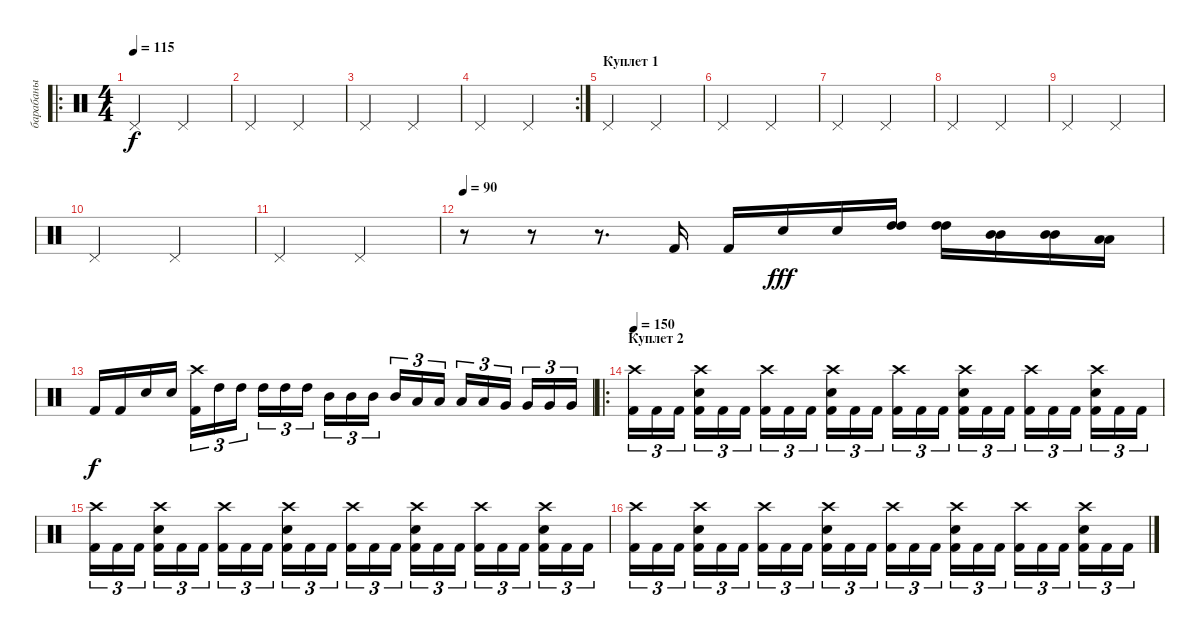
\track ("барабаны" "барабаны") {instrument percussion}
\staff {score}
\articulation defaults
\ro
\ts (4 4)
\tempo 115
\clef neutral
\ks c "Pedal Hi-Hat (hit)".2{dy f} "Pedal Hi-Hat (hit)".2
|
"Pedal Hi-Hat (hit)".2 "Pedal Hi-Hat (hit)".2 |
"Pedal Hi-Hat (hit)".2 "Pedal Hi-Hat (hit)".2 |
\rc 2 "Pedal Hi-Hat (hit)".2 "Pedal Hi-Hat (hit)".2
|
\section ("" "Куплет 1")
"Pedal Hi-Hat (hit)".2 "Pedal Hi-Hat (hit)".2 |
"Pedal Hi-Hat (hit)".2 "Pedal Hi-Hat (hit)".2 |
"Pedal Hi-Hat (hit)".2 "Pedal Hi-Hat (hit)".2 |
"Pedal Hi-Hat (hit)".2 "Pedal Hi-Hat (hit)".2 |
"Pedal Hi-Hat (hit)".2 "Pedal Hi-Hat (hit)".2 |
"Pedal Hi-Hat (hit)".2 "Pedal Hi-Hat (hit)".2 |
"Pedal Hi-Hat (hit)".2 "Pedal Hi-Hat (hit)".2 |
\tempo 90
r.8 r.8 r.8{d} "Kick (hit) 2".16 "Kick (hit) 2".16 "Electric Snare (hit)".16{dy fff} "Electric Snare (hit)".16 ("High Tom (hit)" "High Tom (hit)").16 ("High Tom (hit)" "High Tom (hit)").16 ("Mid Tom (hit)" "Mid Tom (hit)").16 ("Mid Tom (hit)" "Mid Tom (hit)").16 ("Low Tom (hit)" "Low Tom (hit)").16 |
"Kick (hit) 2".16{dy f} "Kick (hit) 2".16 "Electric Snare (hit)".16 "Electric Snare (hit)".16 ("Crash high (hit)" "Kick (hit) 2").16{tu (3 2)} "High Tom (hit)".16{tu (3 2) balance 13} "High Tom (hit)".16{tu (3 2)} "High Tom (hit)".16{tu (3 2)} "High Tom (hit)".16{tu (3 2)} "High Tom (hit)".16{tu (3 2)} "Mid Tom (hit)".16{tu (3 2) balance 10} "Mid Tom (hit)".16{tu (3 2)} "Mid Tom (hit)".16{tu (3 2)} "Mid Tom (hit)".16{tu (3 2)} "Low Tom (hit)".16{tu (3 2) balance 6} "Low Tom (hit)".16{tu (3 2)} "Low Tom (hit)".16{tu (3 2)} "Low Tom (hit)".16{tu (3 2)} "Very Low Tom (hit)".16{tu (3 2) balance 3} "Very Low Tom (hit)".16{tu (3 2)} "Very Low Tom (hit)".16{tu (3 2)} "Very Low Tom (hit)".16{tu (3 2)} |
\ro
\section ("" "Куплет 2")
\tempo 150
("Crash high (hit)" "Kick (hit) 2").16{tu (3 2)} "Kick (hit) 2".16{tu (3 2)} "Kick (hit) 2".16{tu (3 2)} ("Crash high (hit)" "Electric Snare (hit)" "Kick (hit) 2").16{tu (3 2)} "Kick (hit) 2".16{tu (3 2)} "Kick (hit) 2".16{tu (3 2)} ("Crash high (hit)" "Kick (hit) 2").16{tu (3 2)} "Kick (hit) 2".16{tu (3 2)} "Kick (hit) 2".16{tu (3 2)} ("Crash high (hit)" "Electric Snare (hit)" "Kick (hit) 2").16{tu (3 2)} "Kick (hit) 2".16{tu (3 2)} "Kick (hit) 2".16{tu (3 2)} ("Crash high (hit)" "Kick (hit) 2").16{tu (3 2)} "Kick (hit) 2".16{tu (3 2)} "Kick (hit) 2".16{tu (3 2)} ("Crash high (hit)" "Electric Snare (hit)" "Kick (hit) 2").16{tu (3 2)} "Kick (hit) 2".16{tu (3 2)} "Kick (hit) 2".16{tu (3 2)} ("Crash high (hit)" "Kick (hit) 2").16{tu (3 2)} "Kick (hit) 2".16{tu (3 2)} "Kick (hit) 2".16{tu (3 2)} ("Crash high (hit)" "Electric Snare (hit)" "Kick (hit) 2").16{tu (3 2)} "Kick (hit) 2".16{tu (3 2)} "Kick (hit) 2".16{tu (3 2)} |
("Crash high (hit)" "Kick (hit) 2").16{tu (3 2)} "Kick (hit) 2".16{tu (3 2)} "Kick (hit) 2".16{tu (3 2)} ("Crash high (hit)" "Electric Snare (hit)" "Kick (hit) 2").16{tu (3 2)} "Kick (hit) 2".16{tu (3 2)} "Kick (hit) 2".16{tu (3 2)} ("Crash high (hit)" "Kick (hit) 2").16{tu (3 2)} "Kick (hit) 2".16{tu (3 2)} "Kick (hit) 2".16{tu (3 2)} ("Crash high (hit)" "Electric Snare (hit)" "Kick (hit) 2").16{tu (3 2)} "Kick (hit) 2".16{tu (3 2)} "Kick (hit) 2".16{tu (3 2)} ("Crash high (hit)" "Kick (hit) 2").16{tu (3 2)} "Kick (hit) 2".16{tu (3 2)} "Kick (hit) 2".16{tu (3 2)} ("Crash high (hit)" "Electric Snare (hit)" "Kick (hit) 2").16{tu (3 2)} "Kick (hit) 2".16{tu (3 2)} "Kick (hit) 2".16{tu (3 2)} ("Crash high (hit)" "Kick (hit) 2").16{tu (3 2)} "Kick (hit) 2".16{tu (3 2)} "Kick (hit) 2".16{tu (3 2)} ("Crash high (hit)" "Electric Snare (hit)" "Kick (hit) 2").16{tu (3 2)} "Kick (hit) 2".16{tu (3 2)} "Kick (hit) 2".16{tu (3 2)} |
("Crash high (hit)" "Kick (hit) 2").16{tu (3 2)} "Kick (hit) 2".16{tu (3 2)} "Kick (hit) 2".16{tu (3 2)} ("Crash high (hit)" "Electric Snare (hit)" "Kick (hit) 2").16{tu (3 2)} "Kick (hit) 2".16{tu (3 2)} "Kick (hit) 2".16{tu (3 2)} ("Crash high (hit)" "Kick (hit) 2").16{tu (3 2)} "Kick (hit) 2".16{tu (3 2)} "Kick (hit) 2".16{tu (3 2)} ("Crash high (hit)" "Electric Snare (hit)" "Kick (hit) 2").16{tu (3 2)} "Kick (hit) 2".16{tu (3 2)} "Kick (hit) 2".16{tu (3 2)} ("Crash high (hit)" "Kick (hit) 2").16{tu (3 2)} "Kick (hit) 2".16{tu (3 2)} "Kick (hit) 2".16{tu (3 2)} ("Crash high (hit)" "Electric Snare (hit)" "Kick (hit) 2").16{tu (3 2)} "Kick (hit) 2".16{tu (3 2)} "Kick (hit) 2".16{tu (3 2)} ("Crash high (hit)" "Kick (hit) 2").16{tu (3 2)} "Kick (hit) 2".16{tu (3 2)} "Kick (hit) 2".16{tu (3 2)} ("Crash high (hit)" "Electric Snare (hit)" "Kick (hit) 2").16{tu (3 2)} "Kick (hit) 2".16{tu (3 2)} "Kick (hit) 2".16{tu (3 2)}
